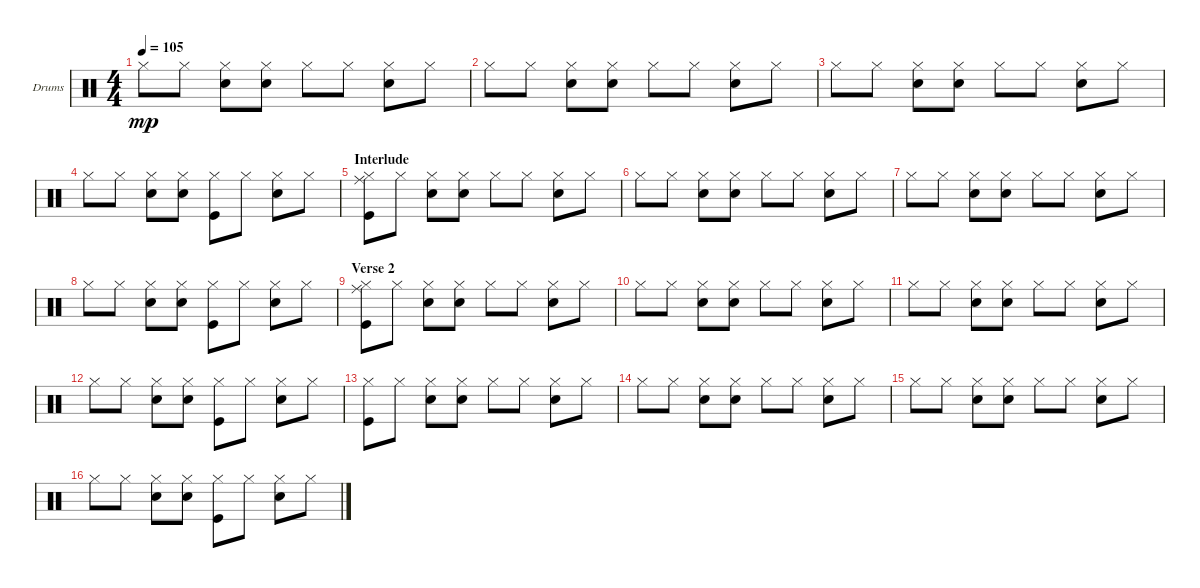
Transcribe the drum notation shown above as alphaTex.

\bracketExtendMode groupsimilarinstruments
\firstSystemTrackNameOrientation horizontal
\otherSystemsTrackNameOrientation horizontal
\track ("Drumkit" "Drums") {instrument percussion}
\staff {score}
\articulation defaults
\ts (4 4)
\tempo 105
\clef neutral
\ks c "Hi-Hat (closed)".8{dy mp} "Hi-Hat (closed)".8
("Snare (hit) 2" "Hi-Hat (closed)").8 ("Hi-Hat (closed)" "Snare (hit) 2").8 "Hi-Hat (closed)".8 "Hi-Hat (closed)".8 ("Snare (hit) 2" "Hi-Hat (closed)").8 "Hi-Hat (closed)".8 |
"Hi-Hat (closed)".8 "Hi-Hat (closed)".8 ("Snare (hit) 2" "Hi-Hat (closed)").8 ("Hi-Hat (closed)" "Snare (hit) 2").8 "Hi-Hat (closed)".8 "Hi-Hat (closed)".8 ("Snare (hit) 2" "Hi-Hat (closed)").8 "Hi-Hat (closed)".8 |
"Hi-Hat (closed)".8 "Hi-Hat (closed)".8 ("Snare (hit) 2" "Hi-Hat (closed)").8 ("Hi-Hat (closed)" "Snare (hit) 2").8 "Hi-Hat (closed)".8 "Hi-Hat (closed)".8 ("Snare (hit) 2" "Hi-Hat (closed)").8 "Hi-Hat (closed)".8 |
"Hi-Hat (closed)".8 "Hi-Hat (closed)".8 ("Snare (hit) 2" "Hi-Hat (closed)").8 ("Hi-Hat (closed)" "Snare (hit) 2").8 ("Hi-Hat (closed)" "Kick (hit)").8 "Hi-Hat (closed)".8 ("Snare (hit) 2" "Hi-Hat (closed)").8 "Hi-Hat (closed)".8 |
\section ("" "Interlude")
("Hi-Hat (closed)" "Ride (middle)" "Kick (hit)").8 "Hi-Hat (closed)".8 ("Snare (hit) 2" "Hi-Hat (closed)").8 ("Hi-Hat (closed)" "Snare (hit) 2").8 "Hi-Hat (closed)".8 "Hi-Hat (closed)".8 ("Snare (hit) 2" "Hi-Hat (closed)").8 "Hi-Hat (closed)".8 |
"Hi-Hat (closed)".8 "Hi-Hat (closed)".8 ("Snare (hit) 2" "Hi-Hat (closed)").8 ("Hi-Hat (closed)" "Snare (hit) 2").8 "Hi-Hat (closed)".8 "Hi-Hat (closed)".8 ("Snare (hit) 2" "Hi-Hat (closed)").8 "Hi-Hat (closed)".8 |
"Hi-Hat (closed)".8 "Hi-Hat (closed)".8 ("Snare (hit) 2" "Hi-Hat (closed)").8 ("Hi-Hat (closed)" "Snare (hit) 2").8 "Hi-Hat (closed)".8 "Hi-Hat (closed)".8 ("Snare (hit) 2" "Hi-Hat (closed)").8 "Hi-Hat (closed)".8 |
"Hi-Hat (closed)".8 "Hi-Hat (closed)".8 ("Snare (hit) 2" "Hi-Hat (closed)").8 ("Hi-Hat (closed)" "Snare (hit) 2").8 ("Hi-Hat (closed)" "Kick (hit)").8 "Hi-Hat (closed)".8 ("Snare (hit) 2" "Hi-Hat (closed)").8 "Hi-Hat (closed)".8 |
\section ("" "Verse 2")
("Hi-Hat (closed)" "Ride (middle)" "Kick (hit)").8 "Hi-Hat (closed)".8 ("Snare (hit) 2" "Hi-Hat (closed)").8 ("Hi-Hat (closed)" "Snare (hit) 2").8 "Hi-Hat (closed)".8 "Hi-Hat (closed)".8 ("Snare (hit) 2" "Hi-Hat (closed)").8 "Hi-Hat (closed)".8 |
"Hi-Hat (closed)".8 "Hi-Hat (closed)".8 ("Snare (hit) 2" "Hi-Hat (closed)").8 ("Hi-Hat (closed)" "Snare (hit) 2").8 "Hi-Hat (closed)".8 "Hi-Hat (closed)".8 ("Snare (hit) 2" "Hi-Hat (closed)").8 "Hi-Hat (closed)".8 |
"Hi-Hat (closed)".8 "Hi-Hat (closed)".8 ("Snare (hit) 2" "Hi-Hat (closed)").8 ("Hi-Hat (closed)" "Snare (hit) 2").8 "Hi-Hat (closed)".8 "Hi-Hat (closed)".8 ("Snare (hit) 2" "Hi-Hat (closed)").8 "Hi-Hat (closed)".8 |
"Hi-Hat (closed)".8 "Hi-Hat (closed)".8 ("Snare (hit) 2" "Hi-Hat (closed)").8 ("Hi-Hat (closed)" "Snare (hit) 2").8 ("Hi-Hat (closed)" "Kick (hit)").8 "Hi-Hat (closed)".8 ("Snare (hit) 2" "Hi-Hat (closed)").8 "Hi-Hat (closed)".8 |
("Hi-Hat (closed)" "Kick (hit)").8 "Hi-Hat (closed)".8 ("Snare (hit) 2" "Hi-Hat (closed)").8 ("Hi-Hat (closed)" "Snare (hit) 2").8 "Hi-Hat (closed)".8 "Hi-Hat (closed)".8 ("Snare (hit) 2" "Hi-Hat (closed)").8 "Hi-Hat (closed)".8 |
"Hi-Hat (closed)".8 "Hi-Hat (closed)".8 ("Snare (hit) 2" "Hi-Hat (closed)").8 ("Hi-Hat (closed)" "Snare (hit) 2").8 "Hi-Hat (closed)".8 "Hi-Hat (closed)".8 ("Snare (hit) 2" "Hi-Hat (closed)").8 "Hi-Hat (closed)".8 |
"Hi-Hat (closed)".8 "Hi-Hat (closed)".8 ("Snare (hit) 2" "Hi-Hat (closed)").8 ("Hi-Hat (closed)" "Snare (hit) 2").8 "Hi-Hat (closed)".8 "Hi-Hat (closed)".8 ("Snare (hit) 2" "Hi-Hat (closed)").8 "Hi-Hat (closed)".8 |
"Hi-Hat (closed)".8 "Hi-Hat (closed)".8 ("Snare (hit) 2" "Hi-Hat (closed)").8 ("Hi-Hat (closed)" "Snare (hit) 2").8 ("Hi-Hat (closed)" "Kick (hit)").8 "Hi-Hat (closed)".8 ("Snare (hit) 2" "Hi-Hat (closed)").8 "Hi-Hat (closed)".8
